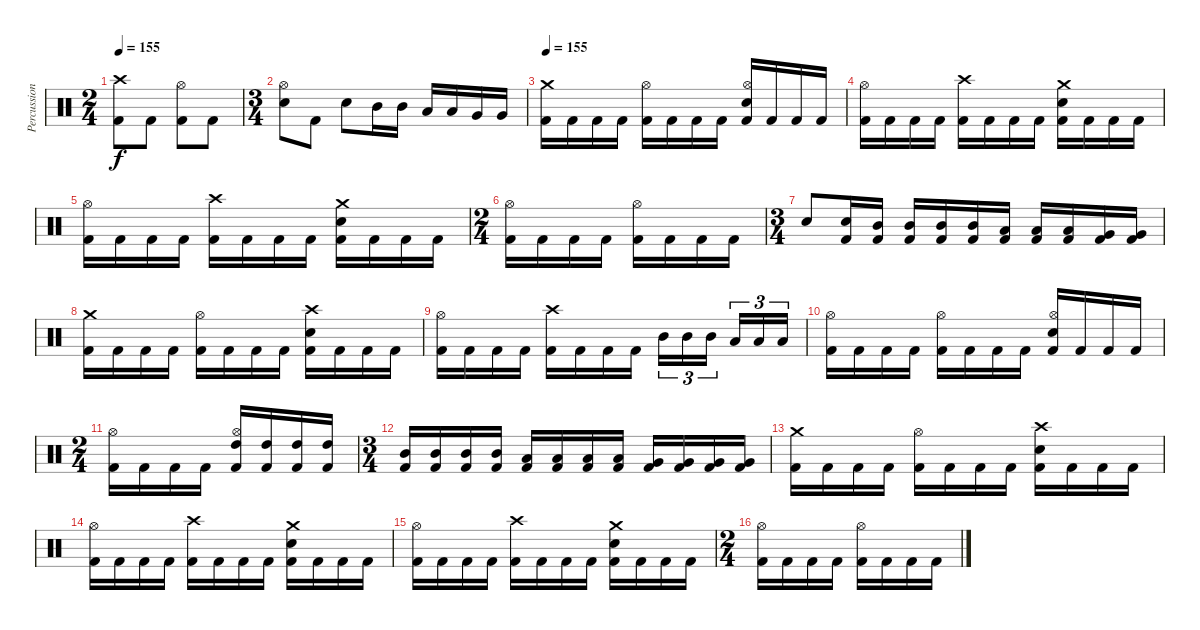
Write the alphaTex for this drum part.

\track ("Percussion" "Percussion") {instrument percussion}
\staff {score}
\articulation defaults
\ts (2 4)
\tempo 155
\clef neutral
\ks c
("Crash high (hit)" "Kick (hit) 2").8{dy f} "Kick (hit) 2".8 ("Hi-Hat (open)" "Kick (hit) 2").8 "Kick (hit) 2".8 |
\ts (3 4)
("Hi-Hat (open)" "Electric Snare (hit)").8 "Kick (hit) 2".8 "Electric Snare (hit)".8 "Mid Tom (hit)".16 "Mid Tom (hit)".16 "Low Tom (hit)".16 "Low Tom (hit)".16 "Very Low Tom (hit)".16 "Very Low Tom (hit)".16 |
\tempo 155
("Crash medium (hit)" "Kick (hit) 2").16 "Kick (hit) 2".16 "Kick (hit) 2".16 "Kick (hit) 2".16 ("Hi-Hat (open)" "Kick (hit) 2").16 "Kick (hit) 2".16 "Kick (hit) 2".16 "Kick (hit) 2".16 ("Hi-Hat (open)" "Electric Snare (hit)" "Kick (hit) 2").16 "Kick (hit) 2".16 "Kick (hit) 2".16 "Kick (hit) 2".16 |
("Hi-Hat (open)" "Kick (hit) 2").16 "Kick (hit) 2".16 "Kick (hit) 2".16 "Kick (hit) 2".16 ("Crash high (hit)" "Kick (hit) 2").16 "Kick (hit) 2".16 "Kick (hit) 2".16 "Kick (hit) 2".16 ("Crash medium (hit)" "Electric Snare (hit)" "Kick (hit) 2").16 "Kick (hit) 2".16 "Kick (hit) 2".16 "Kick (hit) 2".16 |
("Hi-Hat (open)" "Kick (hit) 2").16 "Kick (hit) 2".16 "Kick (hit) 2".16 "Kick (hit) 2".16 ("Crash high (hit)" "Kick (hit) 2").16 "Kick (hit) 2".16 "Kick (hit) 2".16 "Kick (hit) 2".16 ("Crash medium (hit)" "Electric Snare (hit)" "Kick (hit) 2").16 "Kick (hit) 2".16 "Kick (hit) 2".16 "Kick (hit) 2".16 |
\ts (2 4)
("Hi-Hat (open)" "Kick (hit) 2").16 "Kick (hit) 2".16 "Kick (hit) 2".16 "Kick (hit) 2".16 ("Hi-Hat (open)" "Kick (hit) 2").16 "Kick (hit) 2".16 "Kick (hit) 2".16 "Kick (hit) 2".16 |
\ts (3 4)
"Electric Snare (hit)".8 ("Electric Snare (hit)" "Kick (hit) 2").16 ("Mid Tom (hit)" "Kick (hit) 2").16 ("Mid Tom (hit)" "Kick (hit) 2").16 ("Mid Tom (hit)" "Kick (hit) 2").16 ("Mid Tom (hit)" "Kick (hit) 2").16 ("Low Tom (hit)" "Kick (hit) 2").16 ("Low Tom (hit)" "Kick (hit) 2").16 ("Low Tom (hit)" "Kick (hit) 2").16 ("Very Low Tom (hit)" "Kick (hit) 2").16 ("Very Low Tom (hit)" "Kick (hit) 2").16 |
("Crash medium (hit)" "Kick (hit) 2").16 "Kick (hit) 2".16 "Kick (hit) 2".16 "Kick (hit) 2".16 ("Hi-Hat (open)" "Kick (hit) 2").16 "Kick (hit) 2".16 "Kick (hit) 2".16 "Kick (hit) 2".16 ("Crash high (hit)" "Electric Snare (hit)" "Kick (hit) 2").16 "Kick (hit) 2".16 "Kick (hit) 2".16 "Kick (hit) 2".16 |
("Hi-Hat (open)" "Kick (hit) 2").16 "Kick (hit) 2".16 "Kick (hit) 2".16 "Kick (hit) 2".16 ("Crash high (hit)" "Kick (hit) 2").16 "Kick (hit) 2".16 "Kick (hit) 2".16 "Kick (hit) 2".16 "Mid Tom (hit)".16{tu (3 2)} "Mid Tom (hit)".16{tu (3 2)} "Mid Tom (hit)".16{tu (3 2)} "Low Tom (hit)".16{tu (3 2)} "Low Tom (hit)".16{tu (3 2)} "Low Tom (hit)".16{tu (3 2)} |
("Hi-Hat (open)" "Kick (hit) 2").16 "Kick (hit) 2".16 "Kick (hit) 2".16 "Kick (hit) 2".16 ("Hi-Hat (open)" "Kick (hit) 2").16 "Kick (hit) 2".16 "Kick (hit) 2".16 "Kick (hit) 2".16 ("Hi-Hat (open)" "Electric Snare (hit)" "Kick (hit) 2").16 "Kick (hit) 2".16 "Kick (hit) 2".16 "Kick (hit) 2".16 |
\ts (2 4)
("Hi-Hat (open)" "Kick (hit) 2").16 "Kick (hit) 2".16 "Kick (hit) 2".16 "Kick (hit) 2".16 ("Hi-Hat (open)" "High Tom (hit)" "Kick (hit) 2").16 ("High Tom (hit)" "Kick (hit) 2").16 ("High Tom (hit)" "Kick (hit) 2").16 ("High Tom (hit)" "Kick (hit) 2").16 |
\ts (3 4)
("Mid Tom (hit)" "Kick (hit) 2").16 ("Mid Tom (hit)" "Kick (hit) 2").16 ("Mid Tom (hit)" "Kick (hit) 2").16 ("Mid Tom (hit)" "Kick (hit) 2").16 ("Low Tom (hit)" "Kick (hit) 2").16 ("Low Tom (hit)" "Kick (hit) 2").16 ("Low Tom (hit)" "Kick (hit) 2").16 ("Low Tom (hit)" "Kick (hit) 2").16 ("Very Low Tom (hit)" "Kick (hit) 2").16 ("Very Low Tom (hit)" "Kick (hit) 2").16 ("Very Low Tom (hit)" "Kick (hit) 2").16 ("Very Low Tom (hit)" "Kick (hit) 2").16 |
("Crash medium (hit)" "Kick (hit) 2").16 "Kick (hit) 2".16 "Kick (hit) 2".16 "Kick (hit) 2".16 ("Hi-Hat (open)" "Kick (hit) 2").16 "Kick (hit) 2".16 "Kick (hit) 2".16 "Kick (hit) 2".16 ("Crash high (hit)" "Electric Snare (hit)" "Kick (hit) 2").16 "Kick (hit) 2".16 "Kick (hit) 2".16 "Kick (hit) 2".16 |
("Hi-Hat (open)" "Kick (hit) 2").16 "Kick (hit) 2".16 "Kick (hit) 2".16 "Kick (hit) 2".16 ("Crash high (hit)" "Kick (hit) 2").16 "Kick (hit) 2".16 "Kick (hit) 2".16 "Kick (hit) 2".16 ("Crash medium (hit)" "Electric Snare (hit)" "Kick (hit) 2").16 "Kick (hit) 2".16 "Kick (hit) 2".16 "Kick (hit) 2".16 |
("Hi-Hat (open)" "Kick (hit) 2").16 "Kick (hit) 2".16 "Kick (hit) 2".16 "Kick (hit) 2".16 ("Crash high (hit)" "Kick (hit) 2").16 "Kick (hit) 2".16 "Kick (hit) 2".16 "Kick (hit) 2".16 ("Crash medium (hit)" "Electric Snare (hit)" "Kick (hit) 2").16 "Kick (hit) 2".16 "Kick (hit) 2".16 "Kick (hit) 2".16 |
\ts (2 4)
("Hi-Hat (open)" "Kick (hit) 2").16 "Kick (hit) 2".16 "Kick (hit) 2".16 "Kick (hit) 2".16 ("Hi-Hat (open)" "Kick (hit) 2").16 "Kick (hit) 2".16 "Kick (hit) 2".16 "Kick (hit) 2".16
